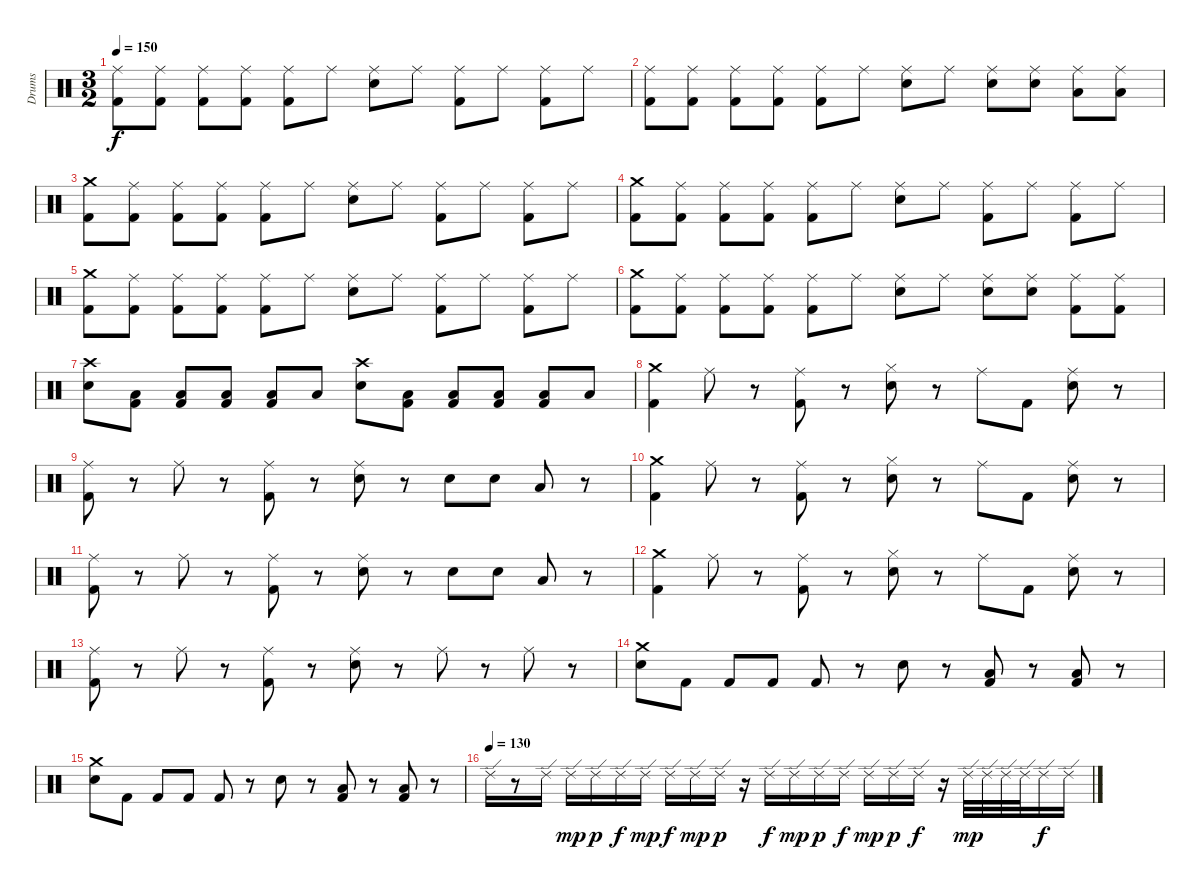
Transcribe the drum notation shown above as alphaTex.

\track ("Drums" "Drums") {instrument percussion}
\staff {score}
\articulation defaults
\ts (3 2)
\tempo 150
\clef neutral
\ks c
("Kick (hit) 2" "Ride (middle)").8{dy f} ("Ride (middle)" "Kick (hit) 2").8 ("Kick (hit) 2" "Ride (middle)").8 ("Kick (hit) 2" "Ride (middle)").8 ("Kick (hit) 2" "Ride (middle)").8 "Ride (middle)".8 ("Electric Snare (hit)" "Ride (middle)").8 "Ride (middle)".8 ("Kick (hit) 2" "Ride (middle)").8 "Ride (middle)".8 ("Kick (hit) 2" "Ride (middle)").8 "Ride (middle)".8 |
("Kick (hit) 2" "Ride (middle)").8 ("Kick (hit) 2" "Ride (middle)").8 ("Ride (middle)" "Kick (hit) 2").8 ("Ride (middle)" "Kick (hit) 2").8 ("Kick (hit) 2" "Ride (middle)").8 "Ride (middle)".8 ("Ride (middle)" "Electric Snare (hit)").8 "Ride (middle)".8 ("Electric Snare (hit)" "Ride (middle)").8 ("Electric Snare (hit)" "Ride (middle)").8 ("Low Floor Tom (hit)" "Ride (middle)").8 ("Low Floor Tom (hit)" "Ride (middle)").8 |
("Crash medium (hit)" "Kick (hit) 2").8 ("Ride (middle)" "Kick (hit) 2").8 ("Ride (middle)" "Kick (hit) 2").8 ("Ride (middle)" "Kick (hit) 2").8 ("Kick (hit) 2" "Ride (middle)").8 "Ride (middle)".8 ("Electric Snare (hit)" "Ride (middle)").8 "Ride (middle)".8 ("Kick (hit) 2" "Ride (middle)").8 "Ride (middle)".8 ("Kick (hit) 2" "Ride (middle)").8 "Ride (middle)".8 |
("Crash medium (hit)" "Kick (hit) 2").8 ("Kick (hit) 2" "Ride (middle)").8 ("Kick (hit) 2" "Ride (middle)").8 ("Kick (hit) 2" "Ride (middle)").8 ("Ride (middle)" "Kick (hit) 2").8 "Ride (middle)".8 ("Ride (middle)" "Electric Snare (hit)").8 "Ride (middle)".8 ("Ride (middle)" "Kick (hit) 2").8 "Ride (middle)".8 ("Ride (middle)" "Kick (hit) 2").8 "Ride (middle)".8 |
("Kick (hit) 2" "Crash medium (hit)").8 ("Kick (hit) 2" "Ride (middle)").8 ("Kick (hit) 2" "Ride (middle)").8 ("Ride (middle)" "Kick (hit) 2").8 ("Ride (middle)" "Kick (hit) 2").8 "Ride (middle)".8 ("Electric Snare (hit)" "Ride (middle)").8 "Ride (middle)".8 ("Kick (hit) 2" "Ride (middle)").8 "Ride (middle)".8 ("Kick (hit) 2" "Ride (middle)").8 "Ride (middle)".8 |
("Crash medium (hit)" "Kick (hit) 2").8 ("Ride (middle)" "Kick (hit) 2").8 ("Kick (hit) 2" "Ride (middle)").8 ("Kick (hit) 2" "Ride (middle)").8 ("Ride (middle)" "Kick (hit) 2").8 "Ride (middle)".8 ("Electric Snare (hit)" "Ride (middle)").8 "Ride (middle)".8 ("Electric Snare (hit)" "Ride (middle)").8 ("Electric Snare (hit)" "Ride (middle)").8 ("Ride (middle)" "Kick (hit) 2").8 ("Ride (middle)" "Kick (hit) 2").8 |
("Crash high (hit)" "Electric Snare (hit)").8 ("Low Floor Tom (hit)" "Kick (hit) 2").8 ("Kick (hit) 2" "Low Floor Tom (hit)").8 ("Low Floor Tom (hit)" "Kick (hit) 2").8 ("Low Floor Tom (hit)" "Kick (hit) 2").8 "Low Floor Tom (hit)".8 ("Crash high (hit)" "Electric Snare (hit)").8 ("Low Floor Tom (hit)" "Kick (hit) 2").8 ("Kick (hit) 2" "Low Floor Tom (hit)").8 ("Kick (hit) 2" "Low Floor Tom (hit)").8 ("Kick (hit) 2" "Low Floor Tom (hit)").8 "Low Floor Tom (hit)".8 |
("Crash medium (hit)" "Kick (hit) 2").4 "Ride (middle)".8 r.8 ("Ride (middle)" "Kick (hit) 2").8 r.8 ("Electric Snare (hit)" "Hi-Hat (closed)").8 r.8 "Ride (middle)".8 "Kick (hit) 2".8 ("Ride (middle)" "Electric Snare (hit)").8 r.8 |
("Ride (middle)" "Kick (hit) 2").8 r.8 "Ride (middle)".8 r.8 ("Kick (hit) 2" "Ride (middle)").8 r.8 ("Electric Snare (hit)" "Ride (middle)").8 r.8 "Electric Snare (hit)".8 "Electric Snare (hit)".8 "Low Floor Tom (hit)".8 r.8 |
("Kick (hit) 2" "Crash medium (hit)").4 "Ride (middle)".8 r.8 ("Kick (hit) 2" "Ride (middle)").8 r.8 ("Electric Snare (hit)" "Hi-Hat (closed)").8 r.8 "Ride (middle)".8 "Kick (hit) 2".8 ("Electric Snare (hit)" "Ride (middle)").8 r.8 |
("Kick (hit) 2" "Ride (middle)").8 r.8 "Ride (middle)".8 r.8 ("Ride (middle)" "Kick (hit) 2").8 r.8 ("Ride (middle)" "Electric Snare (hit)").8 r.8 "Electric Snare (hit)".8 "Electric Snare (hit)".8 "Low Floor Tom (hit)".8 r.8 |
("Kick (hit) 2" "Crash medium (hit)").4 "Ride (middle)".8 r.8 ("Kick (hit) 2" "Ride (middle)").8 r.8 ("Hi-Hat (closed)" "Electric Snare (hit)").8 r.8 "Ride (middle)".8 "Kick (hit) 2".8 ("Electric Snare (hit)" "Ride (middle)").8 r.8 |
("Kick (hit) 2" "Ride (middle)").8 r.8 "Ride (middle)".8 r.8 ("Ride (middle)" "Kick (hit) 2").8 r.8 ("Electric Snare (hit)" "Ride (middle)").8 r.8 "Ride (middle)".8 r.8 "Ride (middle)".8 r.8 |
("Electric Snare (hit)" "Crash medium (hit)").8 "Kick (hit) 2".8 "Kick (hit) 2".8 "Kick (hit) 2".8 "Kick (hit) 2".8 r.8 "Electric Snare (hit)".8 r.8 ("Low Floor Tom (hit)" "Kick (hit) 2").8 r.8 ("Low Floor Tom (hit)" "Kick (hit) 2").8 r.8 |
("Electric Snare (hit)" "Crash medium (hit)").8 "Kick (hit) 2".8 "Kick (hit) 2".8 "Kick (hit) 2".8 "Kick (hit) 2".8 r.8 "Electric Snare (hit)".8 r.8 ("Kick (hit) 2" "Low Floor Tom (hit)").8 r.8 ("Kick (hit) 2" "Low Floor Tom (hit)").8 r.8 |
\tempo (130)
"Ride (edge) 2".16 r.8 "Ride (edge) 2".16 "Ride (edge) 2".16{dy mp} "Ride (edge) 2".16{dy p} "Ride (edge) 2".16{dy f} "Ride (edge) 2".16{dy mp} "Ride (edge) 2".16{dy f} "Ride (edge) 2".16{dy mp} "Ride (edge) 2".16{dy p} r.16 "Ride (edge) 2".16{dy f} "Ride (edge) 2".16{dy mp} "Ride (edge) 2".16{dy p} "Ride (edge) 2".16{dy f} "Ride (edge) 2".16{dy mp} "Ride (edge) 2".16{dy p} "Ride (edge) 2".16{dy f} r.16 "Ride (edge) 2".32{dy mp} "Ride (edge) 2".32 "Ride (edge) 2".32 "Ride (edge) 2".32 "Ride (edge) 2".16{dy f} "Ride (edge) 2".16
